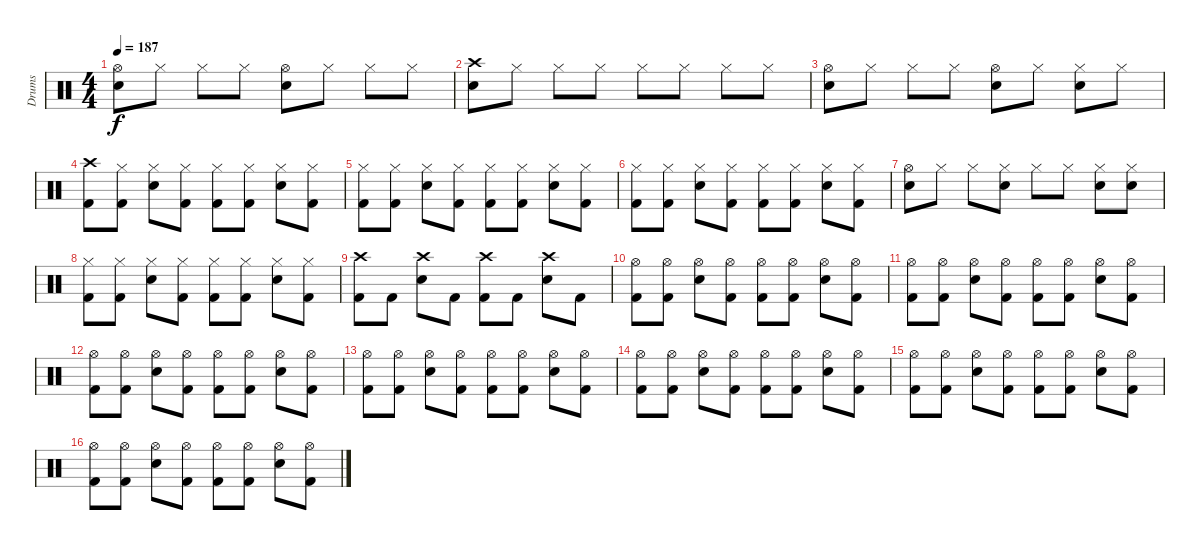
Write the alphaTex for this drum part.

\track ("Drums" "Drums") {instrument percussion}
\staff {score}
\articulation defaults
\ts (4 4)
\tempo 187
\clef neutral
\ks c
("Electric Snare (hit)" "Hi-Hat (open)").8{dy f} "Hi-Hat (closed)".8 "Hi-Hat (closed)".8 "Hi-Hat (closed)".8 ("Snare (hit) 2" "Hi-Hat (open)").8 "Hi-Hat (closed)".8 "Hi-Hat (closed)".8 "Hi-Hat (closed)".8 |
("Electric Snare (hit)" "Crash high (hit)").8 "Hi-Hat (closed)".8 "Hi-Hat (closed)".8 "Hi-Hat (closed)".8 "Hi-Hat (closed)".8 "Hi-Hat (closed)".8 "Hi-Hat (closed)".8 "Hi-Hat (closed)".8 |
("Electric Snare (hit)" "Hi-Hat (open)").8 "Hi-Hat (closed)".8 "Hi-Hat (closed)".8 "Hi-Hat (closed)".8 ("Snare (hit) 2" "Hi-Hat (open)").8 "Hi-Hat (closed)".8 ("Snare (hit) 2" "Hi-Hat (closed)").8 "Hi-Hat (closed)".8 |
("Crash high (hit)" "Kick (hit) 2").8 ("Hi-Hat (closed)" "Kick (hit) 2").8 ("Hi-Hat (closed)" "Snare (hit) 2").8 ("Kick (hit) 2" "Hi-Hat (closed)").8 ("Hi-Hat (closed)" "Kick (hit) 2").8 ("Kick (hit) 2" "Hi-Hat (closed)").8 ("Electric Snare (hit)" "Hi-Hat (closed)").8 ("Kick (hit) 2" "Hi-Hat (closed)").8 |
("Hi-Hat (closed)" "Kick (hit) 2").8 ("Hi-Hat (closed)" "Kick (hit) 2").8 ("Hi-Hat (closed)" "Snare (hit) 2").8 ("Kick (hit) 2" "Hi-Hat (closed)").8 ("Hi-Hat (closed)" "Kick (hit) 2").8 ("Hi-Hat (closed)" "Kick (hit) 2").8 ("Hi-Hat (closed)" "Snare (hit) 2").8 ("Kick (hit) 2" "Hi-Hat (closed)").8 |
("Hi-Hat (closed)" "Kick (hit) 2").8 ("Hi-Hat (closed)" "Kick (hit) 2").8 ("Hi-Hat (closed)" "Snare (hit) 2").8 ("Kick (hit) 2" "Hi-Hat (closed)").8 ("Hi-Hat (closed)" "Kick (hit) 2").8 ("Hi-Hat (closed)" "Kick (hit) 2").8 ("Hi-Hat (closed)" "Snare (hit) 2").8 ("Kick (hit) 2" "Hi-Hat (closed)").8 |
("Hi-Hat (open)" "Snare (hit) 2").8 "Hi-Hat (closed)".8 "Hi-Hat (closed)".8 ("Snare (hit) 2" "Hi-Hat (closed)").8 "Hi-Hat (closed)".8 "Hi-Hat (closed)".8 ("Hi-Hat (closed)" "Snare (hit) 2").8 ("Hi-Hat (closed)" "Snare (hit) 2").8 |
("Hi-Hat (closed)" "Kick (hit) 2").8 ("Hi-Hat (closed)" "Kick (hit) 2").8 ("Hi-Hat (closed)" "Snare (hit) 2").8 ("Kick (hit) 2" "Hi-Hat (closed)").8 ("Hi-Hat (closed)" "Kick (hit) 2").8 ("Hi-Hat (closed)" "Kick (hit) 2").8 ("Hi-Hat (closed)" "Snare (hit) 2").8 ("Kick (hit) 2" "Hi-Hat (closed)").8 |
("Crash high (hit)" "Kick (hit) 2").8 "Kick (hit) 2".8 ("Crash high (hit)" "Snare (hit) 2").8 "Kick (hit) 2".8 ("Crash high (hit)" "Kick (hit) 2").8 "Kick (hit) 2".8 ("Crash high (hit)" "Snare (hit) 2").8 "Kick (hit) 2".8 |
("Hi-Hat (open)" "Kick (hit) 2").8 ("Hi-Hat (open)" "Kick (hit) 2").8 ("Hi-Hat (open)" "Electric Snare (hit)").8 ("Hi-Hat (open)" "Kick (hit) 2").8 ("Hi-Hat (open)" "Kick (hit) 2").8 ("Hi-Hat (open)" "Kick (hit) 2").8 ("Hi-Hat (open)" "Snare (hit) 2").8 ("Hi-Hat (open)" "Kick (hit) 2").8 |
("Hi-Hat (open)" "Kick (hit) 2").8 ("Hi-Hat (open)" "Kick (hit) 2").8 ("Hi-Hat (open)" "Electric Snare (hit)").8 ("Hi-Hat (open)" "Kick (hit) 2").8 ("Hi-Hat (open)" "Kick (hit) 2").8 ("Hi-Hat (open)" "Kick (hit) 2").8 ("Hi-Hat (open)" "Snare (hit) 2").8 ("Hi-Hat (open)" "Kick (hit) 2").8 |
("Hi-Hat (open)" "Kick (hit) 2").8 ("Hi-Hat (open)" "Kick (hit) 2").8 ("Hi-Hat (open)" "Electric Snare (hit)").8 ("Hi-Hat (open)" "Kick (hit) 2").8 ("Hi-Hat (open)" "Kick (hit) 2").8 ("Hi-Hat (open)" "Kick (hit) 2").8 ("Hi-Hat (open)" "Snare (hit) 2").8 ("Hi-Hat (open)" "Kick (hit) 2").8 |
("Hi-Hat (open)" "Kick (hit) 2").8 ("Hi-Hat (open)" "Kick (hit) 2").8 ("Hi-Hat (open)" "Electric Snare (hit)").8 ("Hi-Hat (open)" "Kick (hit) 2").8 ("Hi-Hat (open)" "Kick (hit) 2").8 ("Hi-Hat (open)" "Kick (hit) 2").8 ("Hi-Hat (open)" "Snare (hit) 2").8 ("Hi-Hat (open)" "Kick (hit) 2").8 |
("Hi-Hat (open)" "Kick (hit) 2").8 ("Hi-Hat (open)" "Kick (hit) 2").8 ("Hi-Hat (open)" "Electric Snare (hit)").8 ("Hi-Hat (open)" "Kick (hit) 2").8 ("Hi-Hat (open)" "Kick (hit) 2").8 ("Hi-Hat (open)" "Kick (hit) 2").8 ("Hi-Hat (open)" "Snare (hit) 2").8 ("Hi-Hat (open)" "Kick (hit) 2").8 |
("Hi-Hat (open)" "Kick (hit) 2").8 ("Hi-Hat (open)" "Kick (hit) 2").8 ("Hi-Hat (open)" "Electric Snare (hit)").8 ("Hi-Hat (open)" "Kick (hit) 2").8 ("Hi-Hat (open)" "Kick (hit) 2").8 ("Hi-Hat (open)" "Kick (hit) 2").8 ("Hi-Hat (open)" "Snare (hit) 2").8 ("Hi-Hat (open)" "Kick (hit) 2").8 |
("Hi-Hat (open)" "Kick (hit) 2").8 ("Hi-Hat (open)" "Kick (hit) 2").8 ("Hi-Hat (open)" "Electric Snare (hit)").8 ("Hi-Hat (open)" "Kick (hit) 2").8 ("Hi-Hat (open)" "Kick (hit) 2").8 ("Hi-Hat (open)" "Kick (hit) 2").8 ("Hi-Hat (open)" "Snare (hit) 2").8 ("Hi-Hat (open)" "Kick (hit) 2").8
